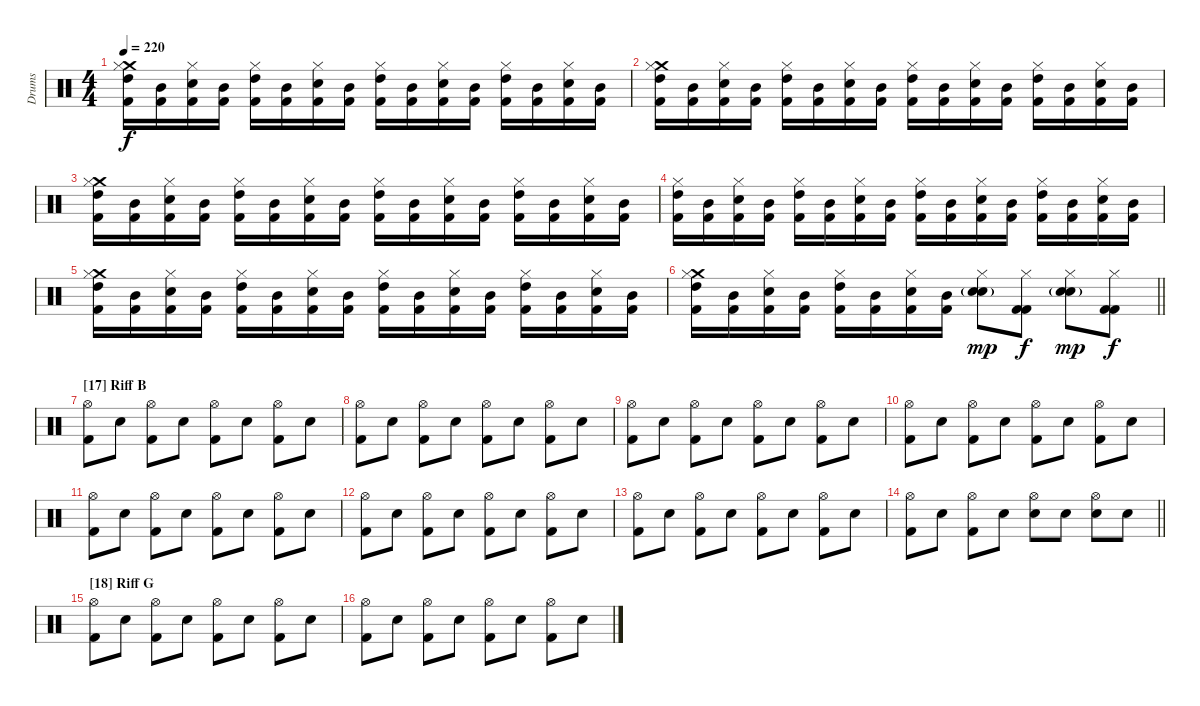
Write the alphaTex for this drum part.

\track ("Drums" "Drums") {instrument percussion}
\staff {score}
\articulation defaults
\ts (4 4)
\tempo 220
\clef neutral
\ks c
("Crash medium (hit)" "Hi-Hat (closed)" "High Tom (hit)" "Kick (hit) 2").16{dy f} ("Mid Tom (hit)" "Kick (hit) 2").16 ("Hi-Hat (closed)" "Electric Snare (hit)" "Kick (hit) 2").16 ("Mid Tom (hit)" "Kick (hit) 2").16 ("Hi-Hat (closed)" "High Tom (hit)" "Kick (hit) 2").16 ("Mid Tom (hit)" "Kick (hit) 2").16 ("Hi-Hat (closed)" "Electric Snare (hit)" "Kick (hit) 2").16 ("Mid Tom (hit)" "Kick (hit) 2").16 ("Hi-Hat (closed)" "High Tom (hit)" "Kick (hit) 2").16 ("Mid Tom (hit)" "Kick (hit) 2").16 ("Hi-Hat (closed)" "Electric Snare (hit)" "Kick (hit) 2").16 ("Mid Tom (hit)" "Kick (hit) 2").16 ("Hi-Hat (closed)" "High Tom (hit)" "Kick (hit) 2").16 ("Mid Tom (hit)" "Kick (hit) 2").16 ("Hi-Hat (closed)" "Electric Snare (hit)" "Kick (hit) 2").16 ("Mid Tom (hit)" "Kick (hit) 2").16 |
("Crash medium (hit)" "Hi-Hat (closed)" "High Tom (hit)" "Kick (hit) 2").16 ("Mid Tom (hit)" "Kick (hit) 2").16 ("Hi-Hat (closed)" "Electric Snare (hit)" "Kick (hit) 2").16 ("Mid Tom (hit)" "Kick (hit) 2").16 ("Hi-Hat (closed)" "High Tom (hit)" "Kick (hit) 2").16 ("Mid Tom (hit)" "Kick (hit) 2").16 ("Hi-Hat (closed)" "Electric Snare (hit)" "Kick (hit) 2").16 ("Mid Tom (hit)" "Kick (hit) 2").16 ("Hi-Hat (closed)" "High Tom (hit)" "Kick (hit) 2").16 ("Mid Tom (hit)" "Kick (hit) 2").16 ("Hi-Hat (closed)" "Electric Snare (hit)" "Kick (hit) 2").16 ("Mid Tom (hit)" "Kick (hit) 2").16 ("Hi-Hat (closed)" "High Tom (hit)" "Kick (hit) 2").16 ("Mid Tom (hit)" "Kick (hit) 2").16 ("Hi-Hat (closed)" "Electric Snare (hit)" "Kick (hit) 2").16 ("Mid Tom (hit)" "Kick (hit) 2").16 |
("Crash medium (hit)" "Hi-Hat (closed)" "High Tom (hit)" "Kick (hit) 2").16 ("Mid Tom (hit)" "Kick (hit) 2").16 ("Hi-Hat (closed)" "Electric Snare (hit)" "Kick (hit) 2").16 ("Mid Tom (hit)" "Kick (hit) 2").16 ("Hi-Hat (closed)" "High Tom (hit)" "Kick (hit) 2").16 ("Mid Tom (hit)" "Kick (hit) 2").16 ("Hi-Hat (closed)" "Electric Snare (hit)" "Kick (hit) 2").16 ("Mid Tom (hit)" "Kick (hit) 2").16 ("Hi-Hat (closed)" "High Tom (hit)" "Kick (hit) 2").16 ("Mid Tom (hit)" "Kick (hit) 2").16 ("Hi-Hat (closed)" "Electric Snare (hit)" "Kick (hit) 2").16 ("Mid Tom (hit)" "Kick (hit) 2").16 ("Hi-Hat (closed)" "High Tom (hit)" "Kick (hit) 2").16 ("Mid Tom (hit)" "Kick (hit) 2").16 ("Hi-Hat (closed)" "Electric Snare (hit)" "Kick (hit) 2").16 ("Mid Tom (hit)" "Kick (hit) 2").16 |
("Hi-Hat (closed)" "High Tom (hit)" "Kick (hit) 2").16 ("Mid Tom (hit)" "Kick (hit) 2").16 ("Hi-Hat (closed)" "Electric Snare (hit)" "Kick (hit) 2").16 ("Mid Tom (hit)" "Kick (hit) 2").16 ("Hi-Hat (closed)" "High Tom (hit)" "Kick (hit) 2").16 ("Mid Tom (hit)" "Kick (hit) 2").16 ("Hi-Hat (closed)" "Electric Snare (hit)" "Kick (hit) 2").16 ("Mid Tom (hit)" "Kick (hit) 2").16 ("Hi-Hat (closed)" "High Tom (hit)" "Kick (hit) 2").16 ("Mid Tom (hit)" "Kick (hit) 2").16 ("Hi-Hat (closed)" "Electric Snare (hit)" "Kick (hit) 2").16 ("Mid Tom (hit)" "Kick (hit) 2").16 ("Hi-Hat (closed)" "High Tom (hit)" "Kick (hit) 2").16 ("Mid Tom (hit)" "Kick (hit) 2").16 ("Hi-Hat (closed)" "Electric Snare (hit)" "Kick (hit) 2").16 ("Mid Tom (hit)" "Kick (hit) 2").16 |
("Crash medium (hit)" "Hi-Hat (closed)" "High Tom (hit)" "Kick (hit) 2").16 ("Mid Tom (hit)" "Kick (hit) 2").16 ("Hi-Hat (closed)" "Electric Snare (hit)" "Kick (hit) 2").16 ("Mid Tom (hit)" "Kick (hit) 2").16 ("Hi-Hat (closed)" "High Tom (hit)" "Kick (hit) 2").16 ("Mid Tom (hit)" "Kick (hit) 2").16 ("Hi-Hat (closed)" "Electric Snare (hit)" "Kick (hit) 2").16 ("Mid Tom (hit)" "Kick (hit) 2").16 ("Hi-Hat (closed)" "High Tom (hit)" "Kick (hit) 2").16 ("Mid Tom (hit)" "Kick (hit) 2").16 ("Hi-Hat (closed)" "Electric Snare (hit)" "Kick (hit) 2").16 ("Mid Tom (hit)" "Kick (hit) 2").16 ("Hi-Hat (closed)" "High Tom (hit)" "Kick (hit) 2").16 ("Mid Tom (hit)" "Kick (hit) 2").16 ("Hi-Hat (closed)" "Electric Snare (hit)" "Kick (hit) 2").16 ("Mid Tom (hit)" "Kick (hit) 2").16 |
\barLineRight lightlight
("Crash medium (hit)" "Hi-Hat (closed)" "High Tom (hit)" "Kick (hit) 2").16 ("Mid Tom (hit)" "Kick (hit) 2").16 ("Hi-Hat (closed)" "Electric Snare (hit)" "Kick (hit) 2").16 ("Mid Tom (hit)" "Kick (hit) 2").16 ("Hi-Hat (closed)" "High Tom (hit)" "Kick (hit) 2").16 ("Mid Tom (hit)" "Kick (hit) 2").16 ("Hi-Hat (closed)" "Electric Snare (hit)" "Kick (hit) 2").16 ("Mid Tom (hit)" "Kick (hit) 2").16 ("Hi-Hat (closed)" "Electric Snare (hit)"{g} "Snare (hit) 2").8{dy mp} ("Hi-Hat (closed)" "Kick (hit) 2" "Kick (hit) 2").8{dy f} ("Hi-Hat (closed)" "Electric Snare (hit)"{g} "Snare (hit) 2").8{dy mp} ("Hi-Hat (closed)" "Kick (hit) 2" "Kick (hit) 2").8{dy f} |
\section ("" "[17] Riff B")
("Hi-Hat (open)" "Kick (hit) 2").8 "Snare (hit) 2".8 ("Hi-Hat (open)" "Kick (hit) 2").8 "Snare (hit) 2".8 ("Hi-Hat (open)" "Kick (hit) 2").8 "Snare (hit) 2".8 ("Hi-Hat (open)" "Kick (hit) 2").8 "Snare (hit) 2".8 |
("Hi-Hat (open)" "Kick (hit) 2").8 "Snare (hit) 2".8 ("Hi-Hat (open)" "Kick (hit) 2").8 "Snare (hit) 2".8 ("Hi-Hat (open)" "Kick (hit) 2").8 "Snare (hit) 2".8 ("Hi-Hat (open)" "Kick (hit) 2").8 "Snare (hit) 2".8 |
("Hi-Hat (open)" "Kick (hit) 2").8 "Snare (hit) 2".8 ("Hi-Hat (open)" "Kick (hit) 2").8 "Snare (hit) 2".8 ("Hi-Hat (open)" "Kick (hit) 2").8 "Snare (hit) 2".8 ("Hi-Hat (open)" "Kick (hit) 2").8 "Snare (hit) 2".8 |
("Hi-Hat (open)" "Kick (hit) 2").8 "Snare (hit) 2".8 ("Hi-Hat (open)" "Kick (hit) 2").8 "Snare (hit) 2".8 ("Hi-Hat (open)" "Kick (hit) 2").8 "Snare (hit) 2".8 ("Hi-Hat (open)" "Kick (hit) 2").8 "Snare (hit) 2".8 |
("Hi-Hat (open)" "Kick (hit) 2").8 "Snare (hit) 2".8 ("Hi-Hat (open)" "Kick (hit) 2").8 "Snare (hit) 2".8 ("Hi-Hat (open)" "Kick (hit) 2").8 "Snare (hit) 2".8 ("Hi-Hat (open)" "Kick (hit) 2").8 "Snare (hit) 2".8 |
("Hi-Hat (open)" "Kick (hit) 2").8 "Snare (hit) 2".8 ("Hi-Hat (open)" "Kick (hit) 2").8 "Snare (hit) 2".8 ("Hi-Hat (open)" "Kick (hit) 2").8 "Snare (hit) 2".8 ("Hi-Hat (open)" "Kick (hit) 2").8 "Snare (hit) 2".8 |
("Hi-Hat (open)" "Kick (hit) 2").8 "Snare (hit) 2".8 ("Hi-Hat (open)" "Kick (hit) 2").8 "Snare (hit) 2".8 ("Hi-Hat (open)" "Kick (hit) 2").8 "Snare (hit) 2".8 ("Hi-Hat (open)" "Kick (hit) 2").8 "Snare (hit) 2".8 |
\barLineRight lightlight
("Hi-Hat (open)" "Kick (hit) 2").8 "Snare (hit) 2".8 ("Hi-Hat (open)" "Kick (hit) 2").8 "Snare (hit) 2".8 ("Hi-Hat (open)" "Electric Snare (hit)").8 "Electric Snare (hit)".8 ("Hi-Hat (open)" "Electric Snare (hit)").8 "Electric Snare (hit)".8 |
\section ("" "[18] Riff G")
("Hi-Hat (open)" "Kick (hit) 2").8 "Snare (hit) 2".8 ("Hi-Hat (open)" "Kick (hit) 2").8 "Snare (hit) 2".8 ("Hi-Hat (open)" "Kick (hit) 2").8 "Snare (hit) 2".8 ("Hi-Hat (open)" "Kick (hit) 2").8 "Snare (hit) 2".8 |
("Hi-Hat (open)" "Kick (hit) 2").8 "Snare (hit) 2".8 ("Hi-Hat (open)" "Kick (hit) 2").8 "Snare (hit) 2".8 ("Hi-Hat (open)" "Kick (hit) 2").8 "Snare (hit) 2".8 ("Hi-Hat (open)" "Kick (hit) 2").8 "Snare (hit) 2".8
